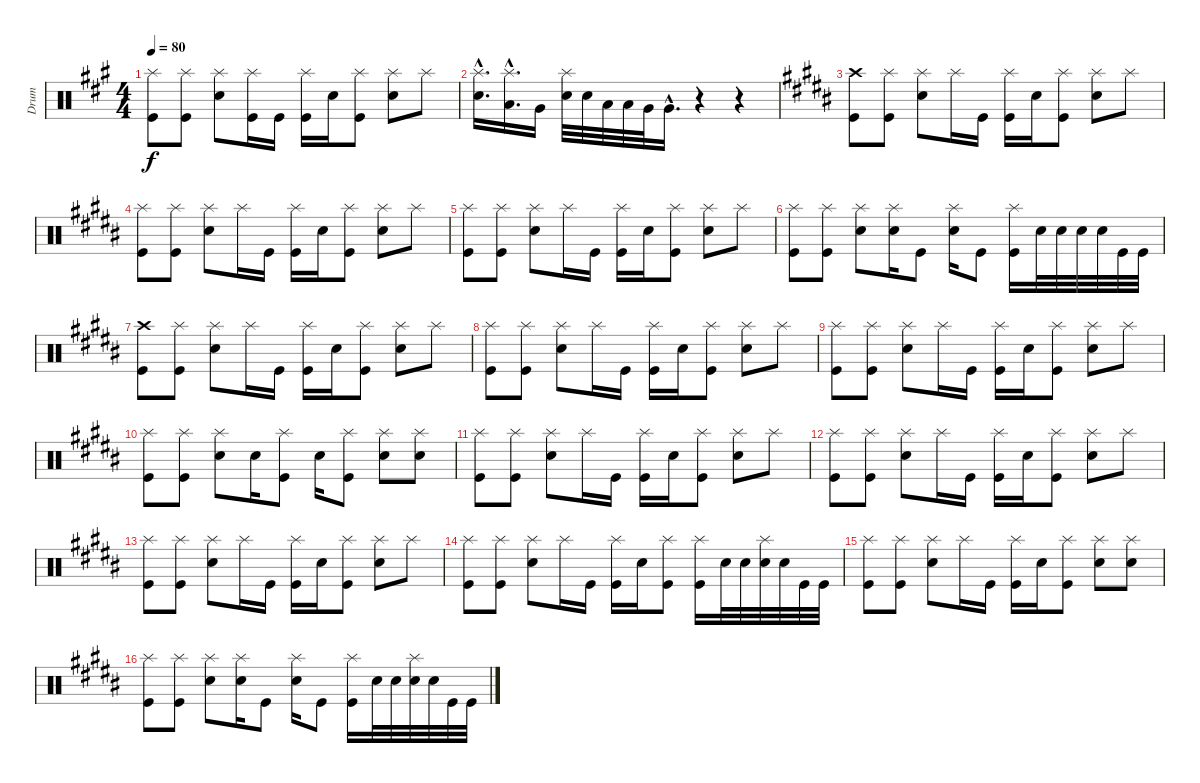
\track ("Drum" "Drum") {instrument percussion}
\staff {score}
\articulation defaults
\ts (4 4)
\tempo 80
\clef neutral
\ks a
("Splash (hit)" "Kick (hit)").8{dy f} ("Splash (hit)" "Kick (hit)").8 ("Splash (hit)" "Electric Snare (hit)").8 ("Splash (hit)" "Kick (hit)").16 "Kick (hit)".16 ("Splash (hit)" "Kick (hit)").16 "Electric Snare (hit)".16 ("Splash (hit)" "Kick (hit)").8 ("Splash (hit)" "Electric Snare (hit)").8 "Splash (hit)".8 |
("Splash (hit)"{hac} "Electric Snare (hit)"{hac}).16{d} ("Splash (hit)"{hac} "Low Tom (hit)"{hac}).16{d} "Very Low Tom (hit)".16 ("Splash (hit)" "Electric Snare (hit)").32 "Electric Snare (hit)".32 "Low Tom (hit)".32 "Low Tom (hit)".32 "Very Low Tom (hit)".32 "Very Low Tom (hit)"{hac}.16{d} r.4 r.4 |
\ks b
("Crash high (hit)" "Kick (hit)").8 ("Splash (hit)" "Kick (hit)").8 ("Splash (hit)" "Electric Snare (hit)").8 "Splash (hit)".16 "Kick (hit)".16 ("Splash (hit)" "Kick (hit)").16 "Electric Snare (hit)".16 ("Splash (hit)" "Kick (hit)").8 ("Splash (hit)" "Electric Snare (hit)").8 "Splash (hit)".8 |
("Splash (hit)" "Kick (hit)").8 ("Splash (hit)" "Kick (hit)").8 ("Splash (hit)" "Electric Snare (hit)").8 "Splash (hit)".16 "Kick (hit)".16 ("Splash (hit)" "Kick (hit)").16 "Electric Snare (hit)".16 ("Splash (hit)" "Kick (hit)").8 ("Splash (hit)" "Electric Snare (hit)").8 "Splash (hit)".8 |
("Splash (hit)" "Kick (hit)").8 ("Splash (hit)" "Kick (hit)").8 ("Splash (hit)" "Electric Snare (hit)").8 "Splash (hit)".16 "Kick (hit)".16 ("Splash (hit)" "Kick (hit)").16 "Electric Snare (hit)".16 ("Splash (hit)" "Kick (hit)").8 ("Splash (hit)" "Electric Snare (hit)").8 "Splash (hit)".8 |
("Splash (hit)" "Kick (hit)").8 ("Splash (hit)" "Kick (hit)").8 ("Splash (hit)" "Electric Snare (hit)").8 ("Splash (hit)" "Electric Snare (hit)").16 "Kick (hit)".8 ("Splash (hit)" "Electric Snare (hit)").16 "Kick (hit)".8 ("Splash (hit)" "Kick (hit)").16 "Electric Snare (hit)".32 "Electric Snare (hit)".32 "Electric Snare (hit)".32 "Electric Snare (hit)".32 "Kick (hit)".32 "Kick (hit)".32 |
("Crash high (hit)" "Kick (hit)").8 ("Splash (hit)" "Kick (hit)").8 ("Splash (hit)" "Electric Snare (hit)").8 "Splash (hit)".16 "Kick (hit)".16 ("Splash (hit)" "Kick (hit)").16 "Electric Snare (hit)".16 ("Splash (hit)" "Kick (hit)").8 ("Splash (hit)" "Electric Snare (hit)").8 "Splash (hit)".8 |
("Splash (hit)" "Kick (hit)").8 ("Splash (hit)" "Kick (hit)").8 ("Splash (hit)" "Electric Snare (hit)").8 "Splash (hit)".16 "Kick (hit)".16 ("Splash (hit)" "Kick (hit)").16 "Electric Snare (hit)".16 ("Splash (hit)" "Kick (hit)").8 ("Splash (hit)" "Electric Snare (hit)").8 "Splash (hit)".8 |
("Splash (hit)" "Kick (hit)").8 ("Splash (hit)" "Kick (hit)").8 ("Splash (hit)" "Electric Snare (hit)").8 "Splash (hit)".16 "Kick (hit)".16 ("Splash (hit)" "Kick (hit)").16 "Electric Snare (hit)".16 ("Splash (hit)" "Kick (hit)").8 ("Splash (hit)" "Electric Snare (hit)").8 "Splash (hit)".8 |
("Splash (hit)" "Kick (hit)").8 ("Splash (hit)" "Kick (hit)").8 ("Splash (hit)" "Electric Snare (hit)").8 "Electric Snare (hit)".16 ("Splash (hit)" "Kick (hit)").8 "Electric Snare (hit)".16 ("Splash (hit)" "Kick (hit)").8 ("Splash (hit)" "Electric Snare (hit)").8 ("Splash (hit)" "Electric Snare (hit)").8 |
("Splash (hit)" "Kick (hit)").8 ("Splash (hit)" "Kick (hit)").8 ("Splash (hit)" "Electric Snare (hit)").8 "Splash (hit)".16 "Kick (hit)".16 ("Splash (hit)" "Kick (hit)").16 "Electric Snare (hit)".16 ("Splash (hit)" "Kick (hit)").8 ("Splash (hit)" "Electric Snare (hit)").8 "Splash (hit)".8 |
("Splash (hit)" "Kick (hit)").8 ("Splash (hit)" "Kick (hit)").8 ("Splash (hit)" "Electric Snare (hit)").8 "Splash (hit)".16 "Kick (hit)".16 ("Splash (hit)" "Kick (hit)").16 "Electric Snare (hit)".16 ("Splash (hit)" "Kick (hit)").8 ("Splash (hit)" "Electric Snare (hit)").8 "Splash (hit)".8 |
("Splash (hit)" "Kick (hit)").8 ("Splash (hit)" "Kick (hit)").8 ("Splash (hit)" "Electric Snare (hit)").8 "Splash (hit)".16 "Kick (hit)".16 ("Splash (hit)" "Kick (hit)").16 "Electric Snare (hit)".16 ("Splash (hit)" "Kick (hit)").8 ("Splash (hit)" "Electric Snare (hit)").8 "Splash (hit)".8 |
("Splash (hit)" "Kick (hit)").8 ("Splash (hit)" "Kick (hit)").8 ("Splash (hit)" "Electric Snare (hit)").8 "Splash (hit)".16 "Kick (hit)".16 ("Splash (hit)" "Kick (hit)").16 "Electric Snare (hit)".16 ("Splash (hit)" "Kick (hit)").8 ("Splash (hit)" "Kick (hit)").16 "Electric Snare (hit)".32 "Electric Snare (hit)".32 ("Splash (hit)" "Electric Snare (hit)").32 "Electric Snare (hit)".32 "Kick (hit)".32 "Kick (hit)".32 |
("Splash (hit)" "Kick (hit)").8 ("Splash (hit)" "Kick (hit)").8 ("Splash (hit)" "Electric Snare (hit)").8 "Splash (hit)".16 "Kick (hit)".16 ("Splash (hit)" "Kick (hit)").16 "Electric Snare (hit)".16 ("Splash (hit)" "Kick (hit)").8 ("Splash (hit)" "Electric Snare (hit)").8 ("Splash (hit)" "Electric Snare (hit)").8 |
("Splash (hit)" "Kick (hit)").8 ("Splash (hit)" "Kick (hit)").8 ("Splash (hit)" "Electric Snare (hit)").8 ("Splash (hit)" "Electric Snare (hit)").16 "Kick (hit)".8 ("Splash (hit)" "Electric Snare (hit)").16 "Kick (hit)".8 ("Splash (hit)" "Kick (hit)").16 "Electric Snare (hit)".32 "Electric Snare (hit)".32 ("Splash (hit)" "Electric Snare (hit)").32 "Electric Snare (hit)".32 "Kick (hit)".32 "Kick (hit)".32
